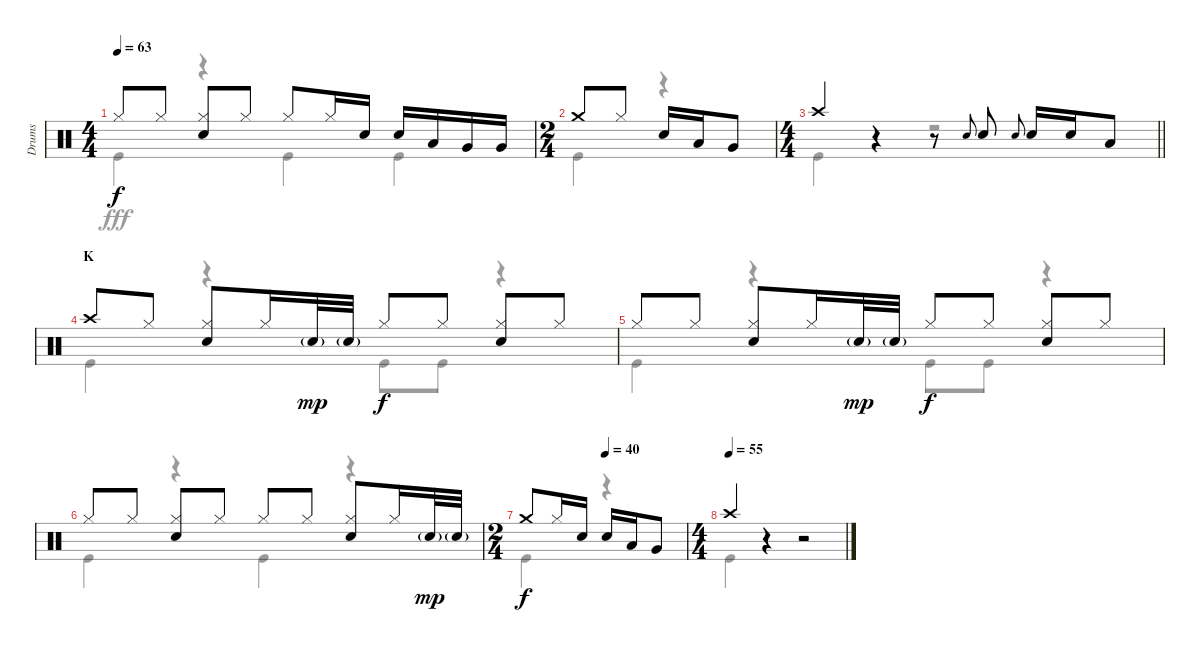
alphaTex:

\track ("Drums" "Drums") {instrument percussion}
\staff {score}
\articulation defaults
\voice
\ts (4 4)
\tempo 63
\clef neutral
\ks c "Hi-Hat (closed)".8{dy f} "Hi-Hat (closed)".8
("Hi-Hat (closed)" "Snare (hit) 2").8 "Hi-Hat (closed)".8 "Hi-Hat (closed)".8 "Hi-Hat (closed)".16 "Snare (hit) 2".16 "Snare (hit) 2".16 "Low Tom (hit)".16 "Very Low Tom (hit)".16 "Very Low Tom (hit)".16 |
\ts (2 4)
"Crash medium (hit)".8 "Hi-Hat (closed)".8 "Snare (hit) 2".16 "Low Tom (hit)".16 "Very Low Tom (hit)".8 |
\ts (4 4)
\barLineRight lightlight "Crash high (hit)".4
r.4 r.8 "Snare (hit) 2".8{gr onbeat} "Snare (hit) 2".8 "Snare (hit) 2".8{gr onbeat} "Snare (hit) 2".16 "Snare (hit) 2".16 "Low Tom (hit)".8 |
\section ("" "K")
"Crash high (hit)".8 "Hi-Hat (closed)".8 ("Hi-Hat (closed)" "Snare (hit) 2").8 "Hi-Hat (closed)".16 "Snare (hit) 2"{g}.32{dy mp} "Snare (hit) 2"{g}.32 "Hi-Hat (closed)".8{dy f} "Hi-Hat (closed)".8 ("Hi-Hat (closed)" "Snare (hit) 2").8 "Hi-Hat (closed)".8 |
"Hi-Hat (closed)".8 "Hi-Hat (closed)".8 ("Hi-Hat (closed)" "Snare (hit) 2").8 "Hi-Hat (closed)".16 "Snare (hit) 2"{g}.32{dy mp} "Snare (hit) 2"{g}.32 "Hi-Hat (closed)".8{dy f} "Hi-Hat (closed)".8 ("Hi-Hat (closed)" "Snare (hit) 2").8 "Hi-Hat (closed)".8 |
"Hi-Hat (closed)".8 "Hi-Hat (closed)".8 ("Hi-Hat (closed)" "Snare (hit) 2").8 "Hi-Hat (closed)".8 "Hi-Hat (closed)".8 "Hi-Hat (closed)".8 ("Hi-Hat (closed)" "Snare (hit) 2").8 "Hi-Hat (closed)".16 "Snare (hit) 2"{g}.32{dy mp} "Snare (hit) 2"{g}.32 |
\ts (2 4)
\tempo (40 0.5)
"Crash medium (hit)".8{dy f} "Hi-Hat (closed)".16 "Snare (hit) 2".16 "Snare (hit) 2".16 "Low Tom (hit)".16 "Very Low Tom (hit)".8 |
\ts (4 4)
\tempo (55)
"Crash high (hit)".4 r.4 r.2
\voice
\clef neutral
\ottava regular
\simile none
\ks c "Kick (hit)".4{dy fff}
r.4 "Kick (hit)".4 "Kick (hit)".4 |
"Kick (hit)".4 r.4 |
\barLineRight lightlight "Kick (hit)".4
r.4 r.2 |
"Kick (hit)".4 r.4 "Kick (hit)".8 "Kick (hit)".8 r.4 |
"Kick (hit)".4 r.4 "Kick (hit)".8 "Kick (hit)".8 r.4 |
"Kick (hit)".4 r.4 "Kick (hit)".4 r.4 |
"Kick (hit)".4 r.4 |
"Kick (hit)".4 r.4 r.2
